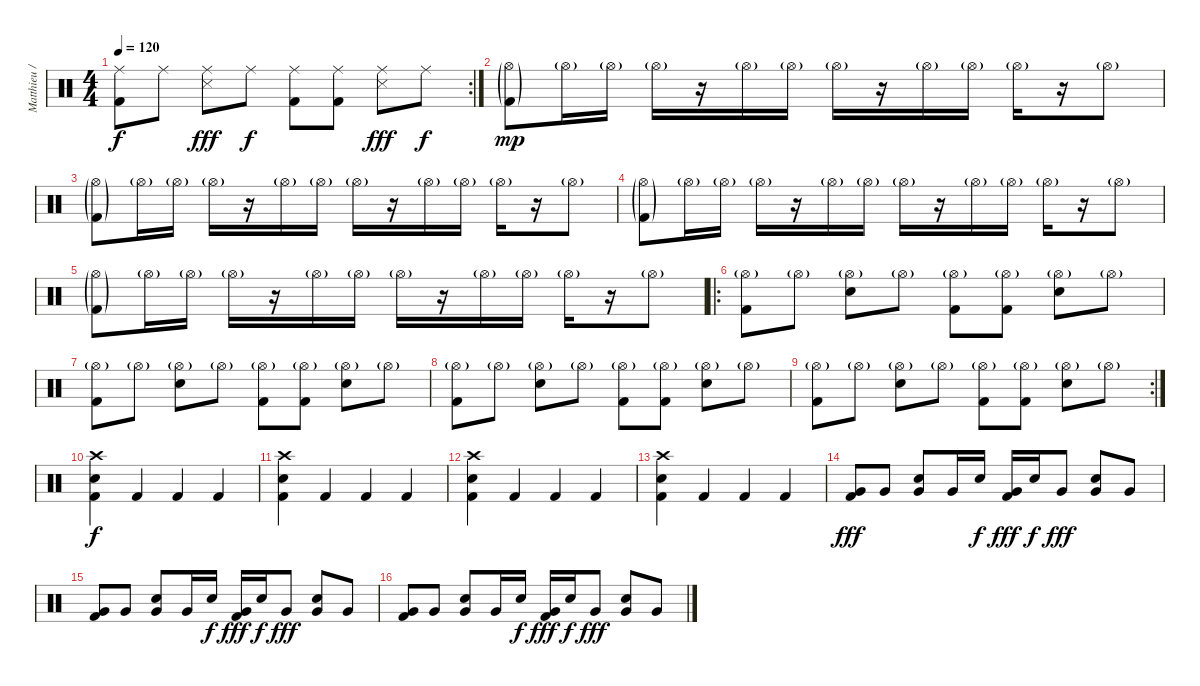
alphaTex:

\track ("Matthieu / drums" "Matthieu /") {instrument percussion}
\staff {score}
\articulation defaults
\rc 2
\ts (4 4)
\tempo 120
\clef neutral
\ks c
("Ride (middle)" "Kick (hit) 2").8{dy f} "Ride (middle)".8 ("Ride (middle)" "Snare (side stick) 3").8{dy fff} "Ride (middle)".8{dy f} ("Ride (middle)" "Kick (hit) 2").8 ("Ride (middle)" "Kick (hit) 2").8 ("Ride (middle)" "Snare (side stick) 3").8{dy fff} "Ride (middle)".8{dy f} |
("Hi-Hat (open)"{g} "Kick (hit) 2"{g}).8{dy mp} "Hi-Hat (open)"{g}.16 "Hi-Hat (open)"{g}.16 "Hi-Hat (open)"{g}.16 r.16 "Hi-Hat (open)"{g}.16 "Hi-Hat (open)"{g}.16 "Hi-Hat (open)"{g}.16 r.16 "Hi-Hat (open)"{g}.16 "Hi-Hat (open)"{g}.16 "Hi-Hat (open)"{g}.16 r.16 "Hi-Hat (open)"{g}.8 |
("Hi-Hat (open)"{g} "Kick (hit) 2"{g}).8 "Hi-Hat (open)"{g}.16 "Hi-Hat (open)"{g}.16 "Hi-Hat (open)"{g}.16 r.16 "Hi-Hat (open)"{g}.16 "Hi-Hat (open)"{g}.16 "Hi-Hat (open)"{g}.16 r.16 "Hi-Hat (open)"{g}.16 "Hi-Hat (open)"{g}.16 "Hi-Hat (open)"{g}.16 r.16 "Hi-Hat (open)"{g}.8 |
("Hi-Hat (open)"{g} "Kick (hit) 2"{g}).8 "Hi-Hat (open)"{g}.16 "Hi-Hat (open)"{g}.16 "Hi-Hat (open)"{g}.16 r.16 "Hi-Hat (open)"{g}.16 "Hi-Hat (open)"{g}.16 "Hi-Hat (open)"{g}.16 r.16 "Hi-Hat (open)"{g}.16 "Hi-Hat (open)"{g}.16 "Hi-Hat (open)"{g}.16 r.16 "Hi-Hat (open)"{g}.8 |
("Hi-Hat (open)"{g} "Kick (hit) 2"{g}).8 "Hi-Hat (open)"{g}.16 "Hi-Hat (open)"{g}.16 "Hi-Hat (open)"{g}.16 r.16 "Hi-Hat (open)"{g}.16 "Hi-Hat (open)"{g}.16 "Hi-Hat (open)"{g}.16 r.16 "Hi-Hat (open)"{g}.16 "Hi-Hat (open)"{g}.16 "Hi-Hat (open)"{g}.16 r.16 "Hi-Hat (open)"{g}.8 |
\ro
("Hi-Hat (open)"{g} "Kick (hit) 2").8 "Hi-Hat (open)"{g}.8 ("Hi-Hat (open)"{g} "Snare (hit) 2").8 "Hi-Hat (open)"{g}.8 ("Hi-Hat (open)"{g} "Kick (hit) 2").8 ("Hi-Hat (open)"{g} "Kick (hit) 2").8 ("Hi-Hat (open)"{g} "Snare (hit) 2").8 "Hi-Hat (open)"{g}.8 |
("Hi-Hat (open)"{g} "Kick (hit) 2").8 "Hi-Hat (open)"{g}.8 ("Hi-Hat (open)"{g} "Snare (hit) 2").8 "Hi-Hat (open)"{g}.8 ("Hi-Hat (open)"{g} "Kick (hit) 2").8 ("Hi-Hat (open)"{g} "Kick (hit) 2").8 ("Hi-Hat (open)"{g} "Snare (hit) 2").8 "Hi-Hat (open)"{g}.8 |
("Hi-Hat (open)"{g} "Kick (hit) 2").8 "Hi-Hat (open)"{g}.8 ("Hi-Hat (open)"{g} "Snare (hit) 2").8 "Hi-Hat (open)"{g}.8 ("Hi-Hat (open)"{g} "Kick (hit) 2").8 ("Hi-Hat (open)"{g} "Kick (hit) 2").8 ("Hi-Hat (open)"{g} "Snare (hit) 2").8 "Hi-Hat (open)"{g}.8 |
\rc 2
("Hi-Hat (open)"{g} "Kick (hit) 2").8 "Hi-Hat (open)"{g}.8 ("Hi-Hat (open)"{g} "Snare (hit) 2").8 "Hi-Hat (open)"{g}.8 ("Hi-Hat (open)"{g} "Kick (hit) 2").8 ("Hi-Hat (open)"{g} "Kick (hit) 2").8 ("Hi-Hat (open)"{g} "Snare (hit) 2").8 "Hi-Hat (open)"{g}.8 |
("Snare (hit) 2" "Crash high (hit)" "Kick (hit) 2").4{dy f} "Kick (hit) 2".4 "Kick (hit) 2".4 "Kick (hit) 2".4 |
("Snare (hit) 2" "Crash high (hit)" "Kick (hit) 2").4 "Kick (hit) 2".4 "Kick (hit) 2".4 "Kick (hit) 2".4 |
("Snare (hit) 2" "Crash high (hit)" "Kick (hit) 2").4 "Kick (hit) 2".4 "Kick (hit) 2".4 "Kick (hit) 2".4 |
("Snare (hit) 2" "Crash high (hit)" "Kick (hit) 2").4 "Kick (hit) 2".4 "Kick (hit) 2".4 "Kick (hit) 2".4 |
("Very Low Tom (hit)" "Kick (hit) 2").8{dy fff} "Very Low Tom (hit)".8 ("Very Low Tom (hit)" "Snare (hit) 2").8 "Very Low Tom (hit)".16 "Snare (hit) 2".16{dy f} ("Very Low Tom (hit)" "Kick (hit) 2").16{dy fff} "Snare (hit) 2".16{dy f} "Very Low Tom (hit)".8{dy fff} ("Very Low Tom (hit)" "Snare (hit) 2").8 "Very Low Tom (hit)".8 |
("Very Low Tom (hit)" "Kick (hit) 2").8 "Very Low Tom (hit)".8 ("Very Low Tom (hit)" "Snare (hit) 2").8 "Very Low Tom (hit)".16 "Snare (hit) 2".16{dy f} ("Very Low Tom (hit)" "Kick (hit) 2").16{dy fff} "Snare (hit) 2".16{dy f} "Very Low Tom (hit)".8{dy fff} ("Very Low Tom (hit)" "Snare (hit) 2").8 "Very Low Tom (hit)".8 |
("Very Low Tom (hit)" "Kick (hit) 2").8 "Very Low Tom (hit)".8 ("Very Low Tom (hit)" "Snare (hit) 2").8 "Very Low Tom (hit)".16 "Snare (hit) 2".16{dy f} ("Very Low Tom (hit)" "Kick (hit) 2").16{dy fff} "Snare (hit) 2".16{dy f} "Very Low Tom (hit)".8{dy fff} ("Very Low Tom (hit)" "Snare (hit) 2").8 "Very Low Tom (hit)".8
